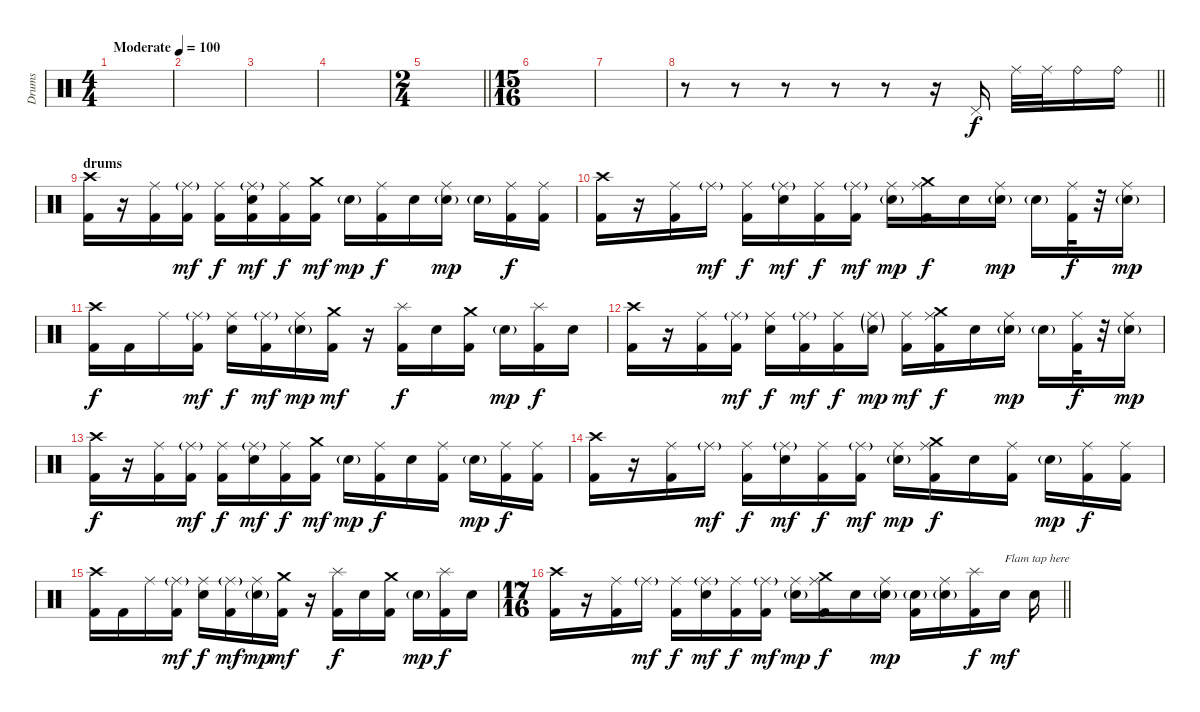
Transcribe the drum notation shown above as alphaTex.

\track ("Drums" "Drums") {instrument percussion}
\staff {score}
\articulation defaults
\ts (4 4)
\tempo (100 "Moderate")
\clef neutral
\ks c
|
|
|
|
\ts (2 4)
\barLineRight lightlight
|
\ts (15 16)
|
|
\barLineRight lightlight
r.8 r.8 r.8 r.8 r.8 r.16 "Pedal Hi-Hat (hit)".16 "Ride (middle)".32 "Ride (middle)".32 "Ride (bell)".16 "Ride (bell)".16 |
\section ("" "drums")
("Crash high (hit)" "Kick (hit) 2").16 r.16 ("Ride (middle)" "Kick (hit) 2").16 ("Ride (middle)"{g} "Kick (hit) 2").16{dy mf} ("Ride (middle)" "Kick (hit) 2").16{dy f} ("Ride (middle)"{g} "Electric Snare (hit)" "Kick (hit) 2").16{dy mf} ("Ride (middle)" "Kick (hit) 2").16{dy f} ("Crash medium (hit)" "Kick (hit) 2").16{dy mf} "Electric Snare (hit)"{g}.16{dy mp} ("Ride (middle)" "Kick (hit) 2").16{dy f} "Electric Snare (hit)".16 ("Ride (middle)" "Electric Snare (hit)"{g}).16{dy mp} "Electric Snare (hit)"{g}.16 ("Ride (middle)" "Kick (hit) 2").16{dy f} ("Ride (middle)" "Kick (hit) 2").16 |
("Crash high (hit)" "Kick (hit) 2").16 r.16 ("Ride (middle)" "Kick (hit) 2").16 "Ride (middle)"{g}.16{dy mf} ("Ride (middle)" "Kick (hit) 2").16{dy f} ("Ride (middle)"{g} "Electric Snare (hit)").16{dy mf} ("Ride (middle)" "Kick (hit) 2").16{dy f} ("Ride (middle)"{g} "Kick (hit) 2").16{dy mf} ("Ride (middle)" "Electric Snare (hit)"{g}).16{dy mp} ("Crash medium (hit)" "Ride (middle)" "Kick (hit) 2").16{dy f} "Electric Snare (hit)".16 ("Ride (middle)" "Electric Snare (hit)"{g}).16{dy mp} "Electric Snare (hit)"{g}.16 ("Ride (middle)" "Kick (hit) 2").32{dy f} r.32 ("Ride (middle)" "Electric Snare (hit)"{g}).16{dy mp} |
("Crash high (hit)" "Kick (hit) 2").16{dy f} "Kick (hit) 2".16 "Ride (middle)".16 ("Ride (middle)"{g} "Kick (hit) 2").16{dy mf} ("Ride (middle)" "Electric Snare (hit)").16{dy f} ("Ride (middle)"{g} "Kick (hit) 2").16{dy mf} ("Ride (middle)" "Electric Snare (hit)"{g}).16{dy mp} ("Crash medium (hit)" "Kick (hit) 2").16{dy mf} r.16 ("Splash (hit)" "Kick (hit) 2").16{dy f} "Electric Snare (hit)".16 ("Crash medium (hit)" "Kick (hit) 2").16 "Electric Snare (hit)"{g}.16{dy mp} ("Splash (hit)" "Kick (hit) 2").16{dy f} "Electric Snare (hit)".16 |
("Crash high (hit)" "Kick (hit) 2").16 r.16 ("Ride (middle)" "Kick (hit) 2").16 ("Ride (middle)"{g} "Kick (hit) 2").16{dy mf} ("Ride (middle)" "Electric Snare (hit)").16{dy f} ("Ride (middle)"{g} "Kick (hit) 2").16{dy mf} ("Ride (middle)" "Kick (hit) 2").16{dy f} ("Ride (middle)"{g} "Electric Snare (hit)"{g}).16{dy mp} ("Ride (middle)" "Kick (hit) 2").16{dy mf} ("Crash medium (hit)" "Ride (middle)" "Kick (hit) 2").16{dy f} "Electric Snare (hit)".16 ("Ride (middle)" "Electric Snare (hit)"{g}).16{dy mp} "Electric Snare (hit)"{g}.16 ("Ride (middle)" "Kick (hit) 2").32{dy f} r.32 ("Ride (middle)" "Electric Snare (hit)"{g}).16{dy mp} |
("Crash high (hit)" "Kick (hit) 2").16{dy f} r.16 ("Ride (middle)" "Kick (hit) 2").16 ("Ride (middle)"{g} "Kick (hit) 2").16{dy mf} ("Ride (middle)" "Kick (hit) 2").16{dy f} ("Ride (middle)"{g} "Electric Snare (hit)").16{dy mf} ("Ride (middle)" "Kick (hit) 2").16{dy f} ("Crash medium (hit)" "Kick (hit) 2").16{dy mf} "Electric Snare (hit)"{g}.16{dy mp} ("Ride (middle)" "Kick (hit) 2").16{dy f} "Electric Snare (hit)".16 ("Ride (middle)" "Kick (hit) 2").16 "Electric Snare (hit)"{g}.16{dy mp} ("Ride (middle)" "Kick (hit) 2").16{dy f} ("Ride (middle)" "Kick (hit) 2").16 |
("Crash high (hit)" "Kick (hit) 2").16 r.16 ("Ride (middle)" "Kick (hit) 2").16 "Ride (middle)"{g}.16{dy mf} ("Ride (middle)" "Kick (hit) 2").16{dy f} ("Ride (middle)"{g} "Electric Snare (hit)").16{dy mf} ("Ride (middle)" "Kick (hit) 2").16{dy f} ("Ride (middle)"{g} "Kick (hit) 2").16{dy mf} ("Ride (middle)" "Electric Snare (hit)"{g}).16{dy mp} ("Crash medium (hit)" "Ride (middle)" "Kick (hit) 2").16{dy f} "Electric Snare (hit)".16 ("Ride (middle)" "Kick (hit) 2").16 "Electric Snare (hit)"{g}.16{dy mp} ("Ride (middle)" "Kick (hit) 2").16{dy f} ("Ride (middle)" "Kick (hit) 2").16 |
("Crash high (hit)" "Kick (hit) 2").16 "Kick (hit) 2".16 "Ride (middle)".16 ("Ride (middle)"{g} "Kick (hit) 2").16{dy mf} ("Ride (middle)" "Electric Snare (hit)").16{dy f} ("Ride (middle)"{g} "Kick (hit) 2").16{dy mf} ("Ride (middle)" "Electric Snare (hit)"{g}).16{dy mp} ("Crash medium (hit)" "Kick (hit) 2").16{dy mf} r.16 ("Splash (hit)" "Kick (hit) 2").16{dy f} "Electric Snare (hit)".16 ("Crash medium (hit)" "Kick (hit) 2").16 "Electric Snare (hit)"{g}.16{dy mp} ("Splash (hit)" "Kick (hit) 2").16{dy f} "Electric Snare (hit)".16 |
\ts (17 16)
\barLineRight lightlight
("Crash high (hit)" "Kick (hit) 2").16 r.16 ("Ride (middle)" "Kick (hit) 2").16 "Ride (middle)"{g}.16{dy mf} ("Ride (middle)" "Kick (hit) 2").16{dy f} ("Ride (middle)"{g} "Electric Snare (hit)").16{dy mf} ("Ride (middle)" "Kick (hit) 2").16{dy f} ("Ride (middle)"{g} "Kick (hit) 2").16{dy mf} ("Ride (middle)" "Electric Snare (hit)"{g}).16{dy mp} ("Crash medium (hit)" "Ride (middle)" "Kick (hit) 2").16{dy f} "Electric Snare (hit)".16 ("Ride (middle)" "Electric Snare (hit)"{g}).16{dy mp} ("Electric Snare (hit)"{g} "Kick (hit) 2").16 ("Ride (middle)" "Electric Snare (hit)"{g}).16 ("Splash (hit)" "Kick (hit) 2").16{dy f} "Electric Snare (hit)".16{txt "Flam tap here" dy mf} "Electric Snare (hit)".16
